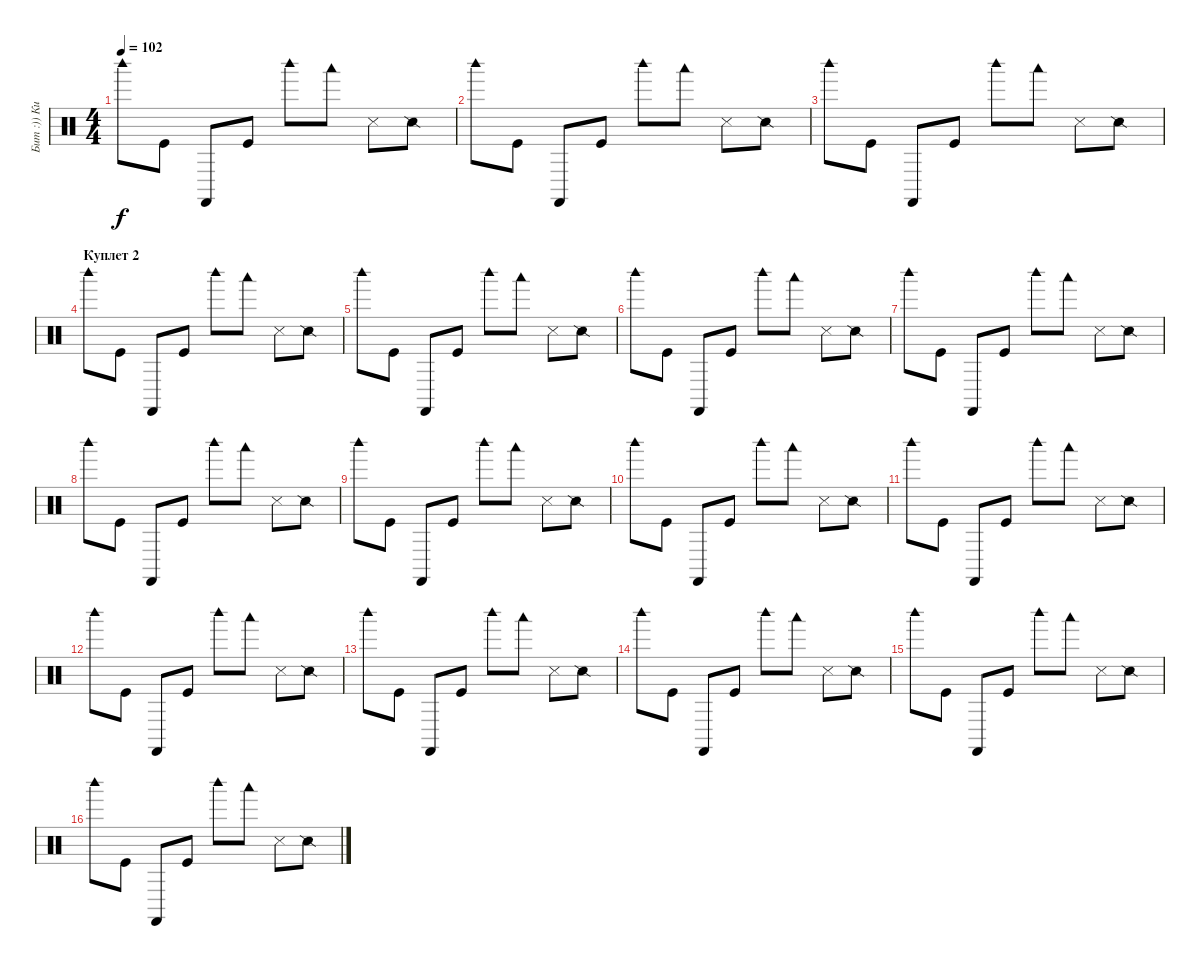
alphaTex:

\track ("Бит :)) Кита" "Бит :)) Ки") {instrument percussion}
\staff {score}
\articulation defaults
\ts (4 4)
\tempo 102
\clef neutral
\ks c "Woodblock high (hit)".8{dy f} "Kick (hit)".8 "Castanets (hit)".8 "Kick (hit)".8 "Woodblock high (hit)".8 "Woodblock low (hit)".8 "Snare (side stick) 3".8 "Snare (side stick) 2".8
|
"Woodblock high (hit)".8 "Kick (hit)".8 "Castanets (hit)".8 "Kick (hit)".8 "Woodblock high (hit)".8 "Woodblock low (hit)".8 "Snare (side stick) 3".8 "Snare (side stick) 2".8 |
"Woodblock high (hit)".8 "Kick (hit)".8 "Castanets (hit)".8 "Kick (hit)".8 "Woodblock high (hit)".8 "Woodblock low (hit)".8 "Snare (side stick) 3".8 "Snare (side stick) 2".8 |
\section ("" "Куплет 2")
"Woodblock high (hit)".8 "Kick (hit)".8 "Castanets (hit)".8 "Kick (hit)".8 "Woodblock high (hit)".8 "Woodblock low (hit)".8 "Snare (side stick) 3".8 "Snare (side stick) 2".8 |
"Woodblock high (hit)".8 "Kick (hit)".8 "Castanets (hit)".8 "Kick (hit)".8 "Woodblock high (hit)".8 "Woodblock low (hit)".8 "Snare (side stick) 3".8 "Snare (side stick) 2".8 |
"Woodblock high (hit)".8 "Kick (hit)".8 "Castanets (hit)".8 "Kick (hit)".8 "Woodblock high (hit)".8 "Woodblock low (hit)".8 "Snare (side stick) 3".8 "Snare (side stick) 2".8 |
"Woodblock high (hit)".8 "Kick (hit)".8 "Castanets (hit)".8 "Kick (hit)".8 "Woodblock high (hit)".8 "Woodblock low (hit)".8 "Snare (side stick) 3".8 "Snare (side stick) 2".8 |
"Woodblock high (hit)".8 "Kick (hit)".8 "Castanets (hit)".8 "Kick (hit)".8 "Woodblock high (hit)".8 "Woodblock low (hit)".8 "Snare (side stick) 3".8 "Snare (side stick) 2".8 |
"Woodblock high (hit)".8 "Kick (hit)".8 "Castanets (hit)".8 "Kick (hit)".8 "Woodblock high (hit)".8 "Woodblock low (hit)".8 "Snare (side stick) 3".8 "Snare (side stick) 2".8 |
"Woodblock high (hit)".8 "Kick (hit)".8 "Castanets (hit)".8 "Kick (hit)".8 "Woodblock high (hit)".8 "Woodblock low (hit)".8 "Snare (side stick) 3".8 "Snare (side stick) 2".8 |
"Woodblock high (hit)".8 "Kick (hit)".8 "Castanets (hit)".8 "Kick (hit)".8 "Woodblock high (hit)".8 "Woodblock low (hit)".8 "Snare (side stick) 3".8 "Snare (side stick) 2".8 |
"Woodblock high (hit)".8 "Kick (hit)".8 "Castanets (hit)".8 "Kick (hit)".8 "Woodblock high (hit)".8 "Woodblock low (hit)".8 "Snare (side stick) 3".8 "Snare (side stick) 2".8 |
"Woodblock high (hit)".8 "Kick (hit)".8 "Castanets (hit)".8 "Kick (hit)".8 "Woodblock high (hit)".8 "Woodblock low (hit)".8 "Snare (side stick) 3".8 "Snare (side stick) 2".8 |
"Woodblock high (hit)".8 "Kick (hit)".8 "Castanets (hit)".8 "Kick (hit)".8 "Woodblock high (hit)".8 "Woodblock low (hit)".8 "Snare (side stick) 3".8 "Snare (side stick) 2".8 |
"Woodblock high (hit)".8 "Kick (hit)".8 "Castanets (hit)".8 "Kick (hit)".8 "Woodblock high (hit)".8 "Woodblock low (hit)".8 "Snare (side stick) 3".8 "Snare (side stick) 2".8 |
"Woodblock high (hit)".8 "Kick (hit)".8 "Castanets (hit)".8 "Kick (hit)".8 "Woodblock high (hit)".8 "Woodblock low (hit)".8 "Snare (side stick) 3".8 "Snare (side stick) 2".8
